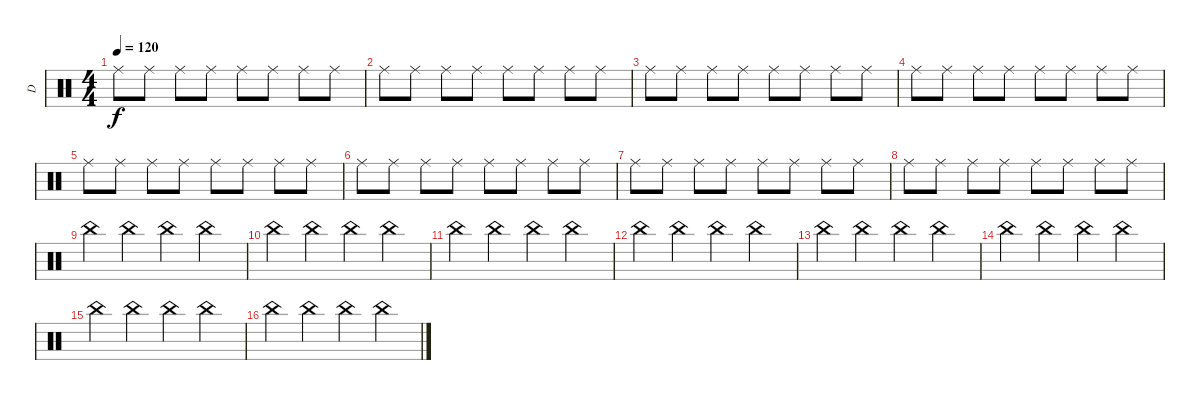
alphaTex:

\track ("D" "D") {instrument percussion}
\staff {score}
\articulation defaults
\ts (4 4)
\tempo 120
\clef neutral
\ks c "Ride (middle)".8{dy f} "Ride (middle)".8 "Ride (middle)".8 "Ride (middle)".8 "Ride (middle)".8 "Ride (middle)".8 "Ride (middle)".8 "Ride (middle)".8
|
"Ride (middle)".8 "Ride (middle)".8 "Ride (middle)".8 "Ride (middle)".8 "Ride (middle)".8 "Ride (middle)".8 "Ride (middle)".8 "Ride (middle)".8 |
"Ride (middle)".8 "Ride (middle)".8 "Ride (middle)".8 "Ride (middle)".8 "Ride (middle)".8 "Ride (middle)".8 "Ride (middle)".8 "Ride (middle)".8 |
"Ride (middle)".8 "Ride (middle)".8 "Ride (middle)".8 "Ride (middle)".8 "Ride (middle)".8 "Ride (middle)".8 "Ride (middle)".8 "Ride (middle)".8 |
"Ride (middle)".8 "Ride (middle)".8 "Ride (middle)".8 "Ride (middle)".8 "Ride (middle)".8 "Ride (middle)".8 "Ride (middle)".8 "Ride (middle)".8 |
"Ride (middle)".8 "Ride (middle)".8 "Ride (middle)".8 "Ride (middle)".8 "Ride (middle)".8 "Ride (middle)".8 "Ride (middle)".8 "Ride (middle)".8 |
"Ride (middle)".8 "Ride (middle)".8 "Ride (middle)".8 "Ride (middle)".8 "Ride (middle)".8 "Ride (middle)".8 "Ride (middle)".8 "Ride (middle)".8 |
"Ride (middle)".8 "Ride (middle)".8 "Ride (middle)".8 "Ride (middle)".8 "Ride (middle)".8 "Ride (middle)".8 "Ride (middle)".8 "Ride (middle)".8 |
"China (hit)".4 "China (hit)".4 "China (hit)".4 "China (hit)".4 |
"China (hit)".4 "China (hit)".4 "China (hit)".4 "China (hit)".4 |
"China (hit)".4 "China (hit)".4 "China (hit)".4 "China (hit)".4 |
"China (hit)".4 "China (hit)".4 "China (hit)".4 "China (hit)".4 |
"China (hit)".4 "China (hit)".4 "China (hit)".4 "China (hit)".4 |
"China (hit)".4 "China (hit)".4 "China (hit)".4 "China (hit)".4 |
"China (hit)".4 "China (hit)".4 "China (hit)".4 "China (hit)".4 |
"China (hit)".4 "China (hit)".4 "China (hit)".4 "China (hit)".4
